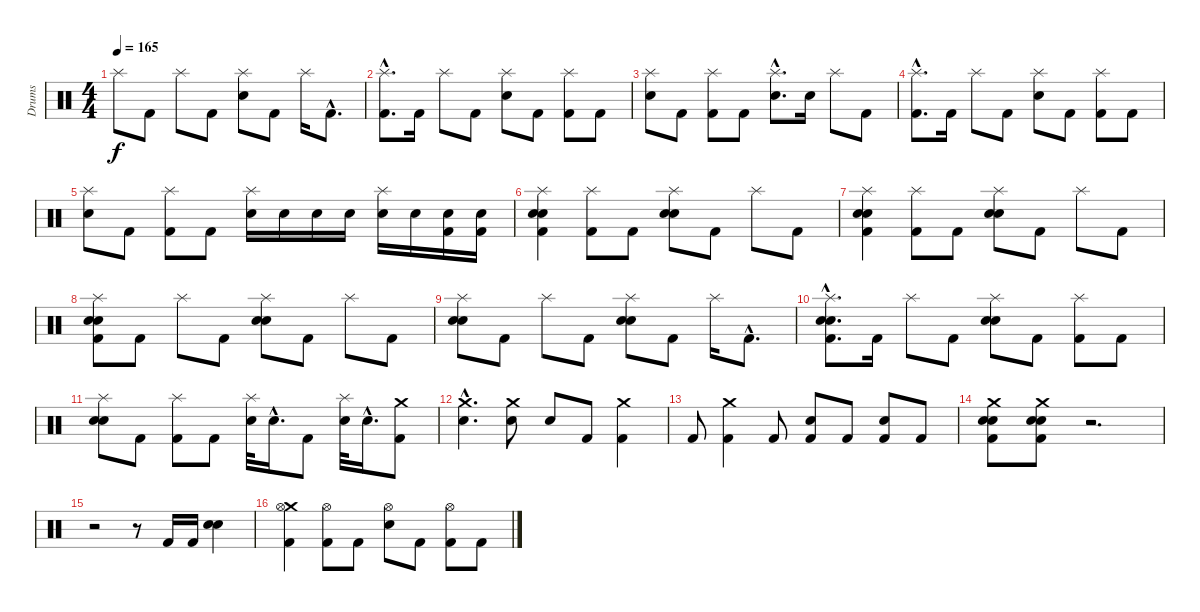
\track ("Drums" "Drums") {instrument percussion}
\staff {score}
\articulation defaults
\ts (4 4)
\tempo 165
\clef neutral
\ks c "Splash (hit)".8{dy f} "Kick (hit) 2".8 "Splash (hit)".8 "Kick (hit) 2".8
("Splash (hit)" "Electric Snare (hit)").8 "Kick (hit) 2".8 "Splash (hit)".16 "Kick (hit) 2"{hac}.8{d} |
("Splash (hit)"{hac} "Kick (hit) 2"{hac}).8{d} "Kick (hit) 2".16 "Splash (hit)".8 "Kick (hit) 2".8 ("Splash (hit)" "Electric Snare (hit)").8 "Kick (hit) 2".8 ("Splash (hit)" "Kick (hit) 2").8 "Kick (hit) 2".8 |
("Splash (hit)" "Electric Snare (hit)").8 "Kick (hit) 2".8 ("Splash (hit)" "Kick (hit) 2").8 "Kick (hit) 2".8 ("Splash (hit)"{hac} "Electric Snare (hit)"{hac}).8{d} "Electric Snare (hit)".16 "Splash (hit)".8 "Kick (hit) 2".8 |
("Splash (hit)"{hac} "Kick (hit) 2"{hac}).8{d} "Kick (hit) 2".16 "Splash (hit)".8 "Kick (hit) 2".8 ("Splash (hit)" "Electric Snare (hit)").8 "Kick (hit) 2".8 ("Splash (hit)" "Kick (hit) 2").8 "Kick (hit) 2".8 |
("Splash (hit)" "Electric Snare (hit)").8 "Kick (hit) 2".8 ("Splash (hit)" "Kick (hit) 2").8 "Kick (hit) 2".8 ("Splash (hit)" "Electric Snare (hit)").16 "Electric Snare (hit)".16 "Electric Snare (hit)".16 "Electric Snare (hit)".16 ("Splash (hit)" "Electric Snare (hit)").16 "Electric Snare (hit)".16 ("Snare (hit) 2" "Kick (hit) 2").16 ("Snare (hit) 2" "Kick (hit) 2").16 |
("Snare (hit) 2" "Splash (hit)" "Electric Snare (hit)" "Kick (hit) 2").4 ("Splash (hit)" "Kick (hit) 2").8 "Kick (hit) 2".8 ("Snare (hit) 2" "Splash (hit)" "Electric Snare (hit)").8 "Kick (hit) 2".8 "Splash (hit)".8 "Kick (hit) 2".8 |
("Snare (hit) 2" "Splash (hit)" "Electric Snare (hit)" "Kick (hit) 2").4 ("Splash (hit)" "Kick (hit) 2").8 "Kick (hit) 2".8 ("Snare (hit) 2" "Splash (hit)" "Electric Snare (hit)").8 "Kick (hit) 2".8 "Splash (hit)".8 "Kick (hit) 2".8 |
("Snare (hit) 2" "Splash (hit)" "Electric Snare (hit)" "Kick (hit) 2").8 "Kick (hit) 2".8 "Splash (hit)".8 "Kick (hit) 2".8 ("Snare (hit) 2" "Splash (hit)" "Electric Snare (hit)").8 "Kick (hit) 2".8 "Splash (hit)".8 "Kick (hit) 2".8 |
("Snare (hit) 2" "Splash (hit)" "Electric Snare (hit)").8 "Kick (hit) 2".8 "Splash (hit)".8 "Kick (hit) 2".8 ("Snare (hit) 2" "Splash (hit)" "Electric Snare (hit)").8 "Kick (hit) 2".8 "Splash (hit)".16 "Kick (hit) 2"{hac}.8{d} |
("Snare (hit) 2"{hac} "Splash (hit)"{hac} "Electric Snare (hit)"{hac} "Kick (hit) 2"{hac}).8{d} "Kick (hit) 2".16 "Splash (hit)".8 "Kick (hit) 2".8 ("Snare (hit) 2" "Splash (hit)" "Electric Snare (hit)").8 "Kick (hit) 2".8 ("Splash (hit)" "Kick (hit) 2").8 "Kick (hit) 2".8 |
("Snare (hit) 2" "Splash (hit)" "Electric Snare (hit)").8 "Kick (hit) 2".8 ("Splash (hit)" "Kick (hit) 2").8 "Kick (hit) 2".8 ("Splash (hit)" "Snare (hit) 2").32 "Snare (hit) 2"{hac}.16{d} "Kick (hit) 2".8 ("Splash (hit)" "Snare (hit) 2").32 "Snare (hit) 2"{hac}.16{d} ("Crash medium (hit)" "Kick (hit) 2").8 |
("Crash medium (hit)"{hac} "Snare (hit) 2"{hac}).4{d} ("Crash medium (hit)" "Snare (hit) 2").8 "Electric Snare (hit)".8 "Kick (hit) 2".8 ("Crash medium (hit)" "Kick (hit) 2").4 |
"Kick (hit) 2".8 ("Crash medium (hit)" "Kick (hit) 2").4 "Kick (hit) 2".8 ("Electric Snare (hit)" "Kick (hit) 2").8 "Kick (hit) 2".8 ("Electric Snare (hit)" "Kick (hit) 2").8 "Kick (hit) 2".8 |
("Electric Snare (hit)" "Crash medium (hit)" "Snare (hit) 2" "Kick (hit) 2").8 ("Electric Snare (hit)" "Crash medium (hit)" "Snare (hit) 2" "Kick (hit) 2").8 r.2{d} |
r.2 r.8 "Kick (hit) 2".16 "Kick (hit) 2".16 ("Snare (hit) 2" "Electric Snare (hit)").4 |
("Crash medium (hit)" "Hi-Hat (open)" "Kick (hit) 2").4 ("Hi-Hat (open)" "Kick (hit) 2").8 "Kick (hit) 2".8 ("Hi-Hat (open)" "Electric Snare (hit)").8 "Kick (hit) 2".8 ("Hi-Hat (open)" "Kick (hit) 2").8 "Kick (hit) 2".8
